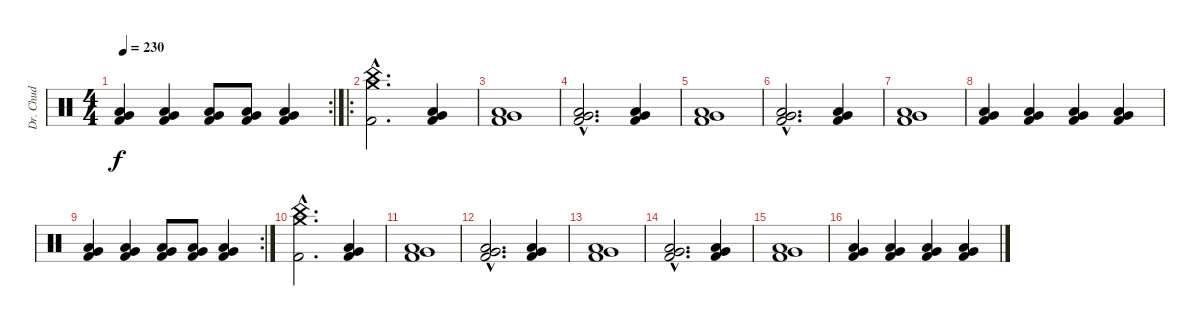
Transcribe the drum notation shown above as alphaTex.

\track ("Dr. Chud" "Dr. Chud") {instrument percussion}
\staff {score}
\articulation defaults
\rc 2
\ts (4 4)
\tempo 230
\clef neutral
\ks c
("Low Tom (hit)" "Very Low Tom (hit)" "Kick (hit) 2").4{dy f} ("Low Tom (hit)" "Very Low Tom (hit)" "Kick (hit) 2").4 ("Low Tom (hit)" "Very Low Tom (hit)" "Kick (hit) 2").8 ("Low Tom (hit)" "Very Low Tom (hit)" "Kick (hit) 2").8 ("Low Tom (hit)" "Very Low Tom (hit)" "Kick (hit) 2").4 |
\ro
("China (hit)"{hac} "Crash medium (hit)"{hac} "Kick (hit) 2"{hac}).2{d} ("Low Tom (hit)" "Very Low Tom (hit)" "Kick (hit) 2").4 |
("Low Tom (hit)" "Very Low Tom (hit)" "Kick (hit) 2").1 |
("Low Tom (hit)"{hac} "Very Low Tom (hit)"{hac} "Kick (hit) 2"{hac}).2{d} ("Low Tom (hit)" "Very Low Tom (hit)" "Kick (hit) 2").4 |
("Low Tom (hit)" "Very Low Tom (hit)" "Kick (hit) 2").1 |
("Low Tom (hit)"{hac} "Very Low Tom (hit)"{hac} "Kick (hit) 2"{hac}).2{d} ("Low Tom (hit)" "Very Low Tom (hit)" "Kick (hit) 2").4 |
("Low Tom (hit)" "Very Low Tom (hit)" "Kick (hit) 2").1 |
("Low Tom (hit)" "Very Low Tom (hit)" "Kick (hit) 2").4 ("Low Tom (hit)" "Very Low Tom (hit)" "Kick (hit) 2").4 ("Low Tom (hit)" "Very Low Tom (hit)" "Kick (hit) 2").4 ("Low Tom (hit)" "Very Low Tom (hit)" "Kick (hit) 2").4 |
\rc 2
("Low Tom (hit)" "Very Low Tom (hit)" "Kick (hit) 2").4 ("Low Tom (hit)" "Very Low Tom (hit)" "Kick (hit) 2").4 ("Low Tom (hit)" "Very Low Tom (hit)" "Kick (hit) 2").8 ("Low Tom (hit)" "Very Low Tom (hit)" "Kick (hit) 2").8 ("Low Tom (hit)" "Very Low Tom (hit)" "Kick (hit) 2").4 |
("China (hit)"{hac} "Crash medium (hit)"{hac} "Kick (hit) 2"{hac}).2{d} ("Low Tom (hit)" "Very Low Tom (hit)" "Kick (hit) 2").4 |
("Low Tom (hit)" "Very Low Tom (hit)" "Kick (hit) 2").1 |
("Low Tom (hit)"{hac} "Very Low Tom (hit)"{hac} "Kick (hit) 2"{hac}).2{d} ("Low Tom (hit)" "Very Low Tom (hit)" "Kick (hit) 2").4 |
("Low Tom (hit)" "Very Low Tom (hit)" "Kick (hit) 2").1 |
("Low Tom (hit)"{hac} "Very Low Tom (hit)"{hac} "Kick (hit) 2"{hac}).2{d} ("Low Tom (hit)" "Very Low Tom (hit)" "Kick (hit) 2").4 |
("Low Tom (hit)" "Very Low Tom (hit)" "Kick (hit) 2").1 |
("Low Tom (hit)" "Very Low Tom (hit)" "Kick (hit) 2").4 ("Low Tom (hit)" "Very Low Tom (hit)" "Kick (hit) 2").4 ("Low Tom (hit)" "Very Low Tom (hit)" "Kick (hit) 2").4 ("Low Tom (hit)" "Very Low Tom (hit)" "Kick (hit) 2").4
